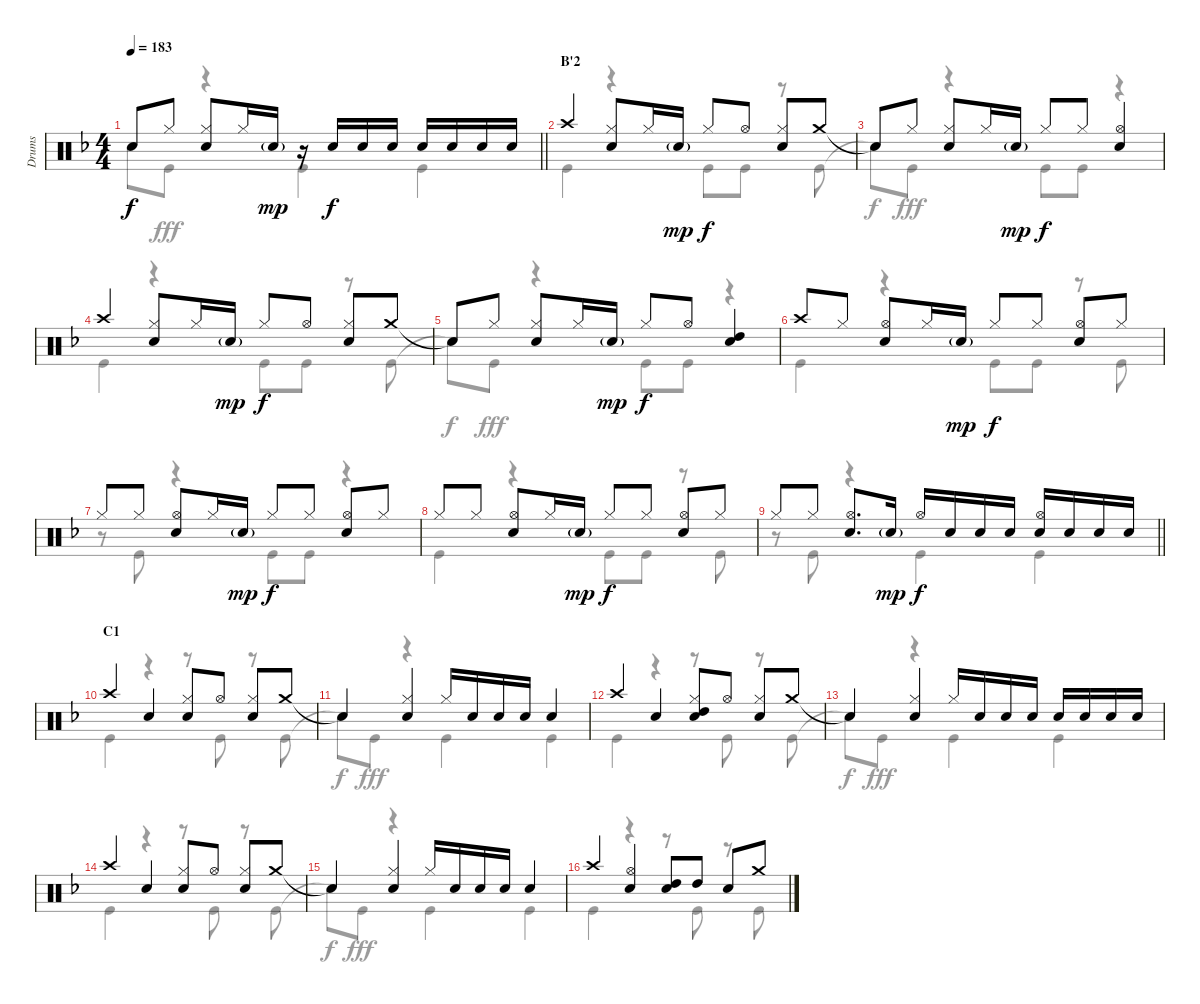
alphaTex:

\track ("Drums" "Drums") {instrument percussion}
\staff {score}
\articulation defaults
\voice
\ts (4 4)
\tempo 183
\clef neutral
\barLineRight lightlight
\ks f "Snare (hit)"{t}.8{dy f} "Hi-Hat (closed)".8
("Hi-Hat (closed)" "Snare (hit) 2").8 "Hi-Hat (closed)".16 "Snare (hit) 2"{g}.16{dy mp} r.16 "Snare (hit) 2".16{dy f} "Snare (hit) 2".16 "Snare (hit) 2".16 "Snare (hit) 2".16 "Snare (hit) 2".16 "Snare (hit) 2".16 "Snare (hit) 2".16 |
\section ("" "B'2")
"Crash high (hit)".4 ("Hi-Hat (closed)" "Snare (hit) 2").8 "Hi-Hat (closed)".16 "Snare (hit) 2"{g}.16{dy mp} "Hi-Hat (closed)".8{dy f} "Hi-Hat (open)".8 ("Hi-Hat (closed)" "Snare (hit) 2").8 "Crash medium (hit)".8 |
"Snare (hit)"{t}.8 "Hi-Hat (closed)".8 ("Hi-Hat (closed)" "Snare (hit) 2").8 "Hi-Hat (closed)".16 "Snare (hit) 2"{g}.16{dy mp} "Hi-Hat (closed)".8{dy f} "Hi-Hat (closed)".8 ("Hi-Hat (open)" "Snare (hit) 2").4 |
"Crash high (hit)".4 ("Hi-Hat (closed)" "Snare (hit) 2").8 "Hi-Hat (closed)".16 "Snare (hit) 2"{g}.16{dy mp} "Hi-Hat (closed)".8{dy f} "Hi-Hat (open)".8 ("Hi-Hat (closed)" "Snare (hit) 2").8 "Crash medium (hit)".8 |
"Snare (hit)"{t}.8 "Hi-Hat (closed)".8 ("Hi-Hat (closed)" "Snare (hit) 2").8 "Hi-Hat (closed)".16 "Snare (hit) 2"{g}.16{dy mp} "Hi-Hat (closed)".8{dy f} "Hi-Hat (open)".8 ("High Tom (hit)" "Snare (hit) 2").4 |
"Crash high (hit)".8 "Hi-Hat (closed)".8 ("Hi-Hat (open)" "Snare (hit) 2").8 "Hi-Hat (closed)".16 "Snare (hit) 2"{g}.16{dy mp} "Hi-Hat (closed)".8{dy f} "Hi-Hat (closed)".8 ("Hi-Hat (open)" "Snare (hit) 2").8 "Hi-Hat (closed)".8 |
"Hi-Hat (closed)".8 "Hi-Hat (closed)".8 ("Hi-Hat (open)" "Snare (hit) 2").8 "Hi-Hat (closed)".16 "Snare (hit) 2"{g}.16{dy mp} "Hi-Hat (closed)".8{dy f} "Hi-Hat (closed)".8 ("Hi-Hat (open)" "Snare (hit) 2").8 "Hi-Hat (closed)".8 |
"Hi-Hat (closed)".8 "Hi-Hat (closed)".8 ("Hi-Hat (open)" "Snare (hit) 2").8 "Hi-Hat (closed)".16 "Snare (hit) 2"{g}.16{dy mp} "Hi-Hat (closed)".8{dy f} "Hi-Hat (closed)".8 ("Hi-Hat (open)" "Snare (hit) 2").8 "Hi-Hat (closed)".8 |
\barLineRight lightlight "Hi-Hat (closed)".8 "Hi-Hat (closed)".8
("Hi-Hat (open)" "Snare (hit) 2").8{d} "Snare (hit) 2"{g}.16{dy mp} "Hi-Hat (open)".16{dy f} "Snare (hit) 2".16 "Snare (hit) 2".16 "Snare (hit) 2".16 ("Hi-Hat (open)" "Snare (hit) 2").16 "Snare (hit) 2".16 "Snare (hit) 2".16 "Snare (hit) 2".16 |
\section ("" "C1")
"Crash high (hit)".4 "Snare (hit) 2".4 ("Hi-Hat (closed)" "Snare (hit) 2").8 "Hi-Hat (open)".8 ("Hi-Hat (closed)" "Snare (hit) 2").8 "Crash medium (hit)".8 |
"Snare (hit)"{t}.4 ("Hi-Hat (closed)" "Snare (hit) 2").4 "Hi-Hat (closed)".16 "Snare (hit) 2".16 "Snare (hit) 2".16 "Snare (hit) 2".16 "Snare (hit) 2".4 |
"Crash high (hit)".4 "Snare (hit) 2".4 ("Hi-Hat (closed)" "High Tom (hit)" "Snare (hit) 2").8 "Hi-Hat (open)".8 ("Hi-Hat (closed)" "Snare (hit) 2").8 "Crash medium (hit)".8 |
"Snare (hit)"{t}.4 ("Hi-Hat (closed)" "Snare (hit) 2").4 "Hi-Hat (closed)".16 "Snare (hit) 2".16 "Snare (hit) 2".16 "Snare (hit) 2".16 "Snare (hit) 2".16 "Snare (hit) 2".16 "Snare (hit) 2".16 "Snare (hit) 2".16 |
"Crash high (hit)".4 "Snare (hit) 2".4 ("Hi-Hat (closed)" "Snare (hit) 2").8 "Hi-Hat (open)".8 ("Hi-Hat (closed)" "Snare (hit) 2").8 "Crash medium (hit)".8 |
"Snare (hit)"{t}.4 ("Hi-Hat (closed)" "Snare (hit) 2").4 "Hi-Hat (closed)".16 "Snare (hit) 2".16 "Snare (hit) 2".16 "Snare (hit) 2".16 "Snare (hit) 2".4 |
"Crash high (hit)".4 ("Hi-Hat (open)" "Snare (hit) 2").4 ("High Tom (hit)" "Snare (hit) 2").8 "High Tom (hit)".8 "Snare (hit) 2".8 "Crash medium (hit)".8
\voice
\clef neutral
\ottava regular
\simile none
\barLineRight lightlight
\ks f "Snare (hit)"{t}.8{dy f} "Kick (hit)".8{dy fff}
r.4 "Kick (hit)".4 "Kick (hit)".4 |
"Kick (hit)".4 r.4 "Kick (hit)".8 "Kick (hit)".8 r.8 "Kick (hit)".8 |
"Snare (hit)"{t}.8{dy f} "Kick (hit)".8{dy fff} r.4 "Kick (hit)".8 "Kick (hit)".8 r.4 |
"Kick (hit)".4 r.4 "Kick (hit)".8 "Kick (hit)".8 r.8 "Kick (hit)".8 |
"Snare (hit)"{t}.8{dy f} "Kick (hit)".8{dy fff} r.4 "Kick (hit)".8 "Kick (hit)".8 r.4 |
"Kick (hit)".4 r.4 "Kick (hit)".8 "Kick (hit)".8 r.8 "Kick (hit)".8 |
r.8 "Kick (hit)".8 r.4 "Kick (hit)".8 "Kick (hit)".8 r.4 |
"Kick (hit)".4 r.4 "Kick (hit)".8 "Kick (hit)".8 r.8 "Kick (hit)".8 |
\barLineRight lightlight
r.8 "Kick (hit)".8 r.4 "Kick (hit)".4 "Kick (hit)".4 |
"Kick (hit)".4 r.4 r.8 "Kick (hit)".8 r.8 "Kick (hit)".8 |
"Snare (hit)"{t}.8{dy f} "Kick (hit)".8{dy fff} r.4 "Kick (hit)".4 "Kick (hit)".4 |
"Kick (hit)".4 r.4 r.8 "Kick (hit)".8 r.8 "Kick (hit)".8 |
"Snare (hit)"{t}.8{dy f} "Kick (hit)".8{dy fff} r.4 "Kick (hit)".4 "Kick (hit)".4 |
"Kick (hit)".4 r.4 r.8 "Kick (hit)".8 r.8 "Kick (hit)".8 |
"Snare (hit)"{t}.8{dy f} "Kick (hit)".8{dy fff} r.4 "Kick (hit)".4 "Kick (hit)".4 |
"Kick (hit)".4 r.4 r.8 "Kick (hit)".8 r.8 "Kick (hit)".8
